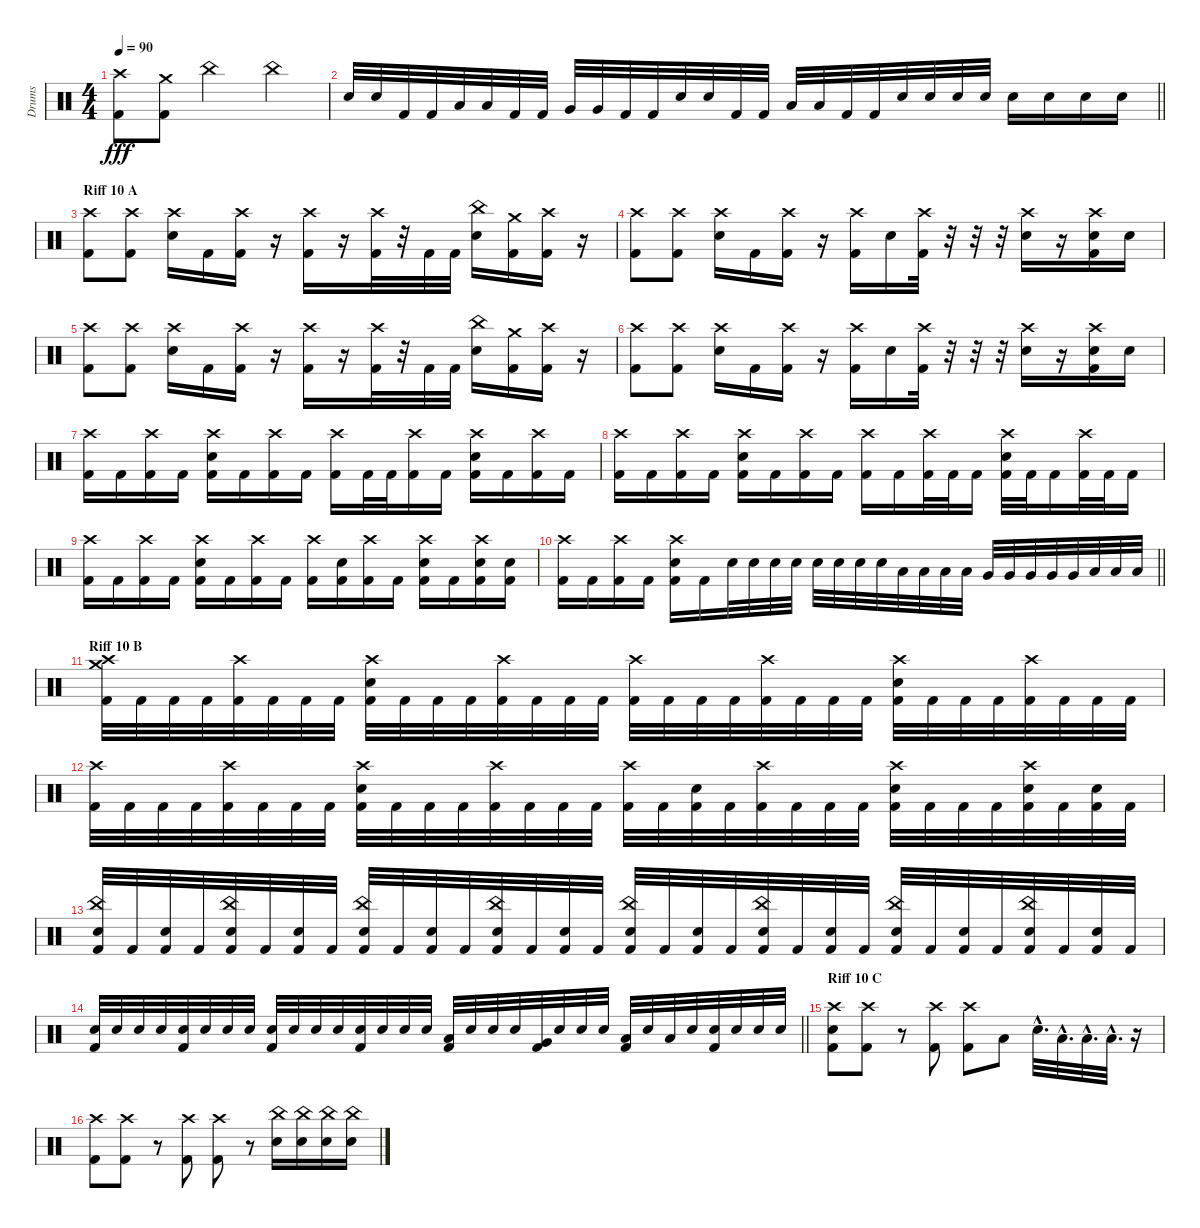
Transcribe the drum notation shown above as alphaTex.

\track ("Drums" "Drums") {instrument percussion}
\staff {score}
\articulation defaults
\ts (4 4)
\tempo 90
\clef neutral
\ks c
("Crash high (hit)" "Kick (hit) 2").8{dy fff} ("Crash medium (hit)" "Kick (hit) 2").8 "China (hit)".2 "China (hit)".4 |
\barLineRight lightlight "Electric Snare (hit)".32 "Electric Snare (hit)".32 "Kick (hit) 2".32 "Kick (hit) 2".32 "Low Tom (hit)".32 "Low Tom (hit)".32 "Kick (hit) 2".32 "Kick (hit) 2".32 "Very Low Tom (hit)".32 "Very Low Tom (hit)".32 "Kick (hit) 2".32 "Kick (hit) 2".32 "Electric Snare (hit)".32 "Electric Snare (hit)".32 "Kick (hit) 2".32 "Kick (hit) 2".32 "Low Tom (hit)".32 "Low Tom (hit)".32 "Kick (hit) 2".32 "Kick (hit) 2".32 "Electric Snare (hit)".32 "Electric Snare (hit)".32 "Electric Snare (hit)".32 "Electric Snare (hit)".32 "Electric Snare (hit)".16 "Electric Snare (hit)".16 "Electric Snare (hit)".16 "Electric Snare (hit)".16
|
\section ("" "Riff 10 A")
("Crash high (hit)" "Kick (hit) 2").8 ("Crash high (hit)" "Kick (hit) 2").8 ("Crash high (hit)" "Electric Snare (hit)").16 "Kick (hit) 2".16 ("Crash high (hit)" "Kick (hit) 2").16 r.16 ("Crash high (hit)" "Kick (hit) 2").16 r.16 ("Crash high (hit)" "Kick (hit) 2").32 r.32 "Kick (hit) 2".32 "Kick (hit) 2".32 ("China (hit)" "Electric Snare (hit)").16 ("Crash medium (hit)" "Kick (hit) 2").16 ("Crash high (hit)" "Kick (hit) 2").16 r.16 |
("Crash high (hit)" "Kick (hit) 2").8 ("Crash high (hit)" "Kick (hit) 2").8 ("Crash high (hit)" "Electric Snare (hit)").16 "Kick (hit) 2".16 ("Crash high (hit)" "Kick (hit) 2").16 r.16 ("Crash high (hit)" "Kick (hit) 2").16 "Electric Snare (hit)".16 ("Crash high (hit)" "Kick (hit) 2").32 r.32 r.32 r.32 ("Crash high (hit)" "Electric Snare (hit)").16 r.16 ("Crash high (hit)" "Electric Snare (hit)" "Kick (hit) 2").16 "Electric Snare (hit)".16 |
("Crash high (hit)" "Kick (hit) 2").8 ("Crash high (hit)" "Kick (hit) 2").8 ("Crash high (hit)" "Electric Snare (hit)").16 "Kick (hit) 2".16 ("Crash high (hit)" "Kick (hit) 2").16 r.16 ("Crash high (hit)" "Kick (hit) 2").16 r.16 ("Crash high (hit)" "Kick (hit) 2").32 r.32 "Kick (hit) 2".32 "Kick (hit) 2".32 ("China (hit)" "Electric Snare (hit)").16 ("Crash medium (hit)" "Kick (hit) 2").16 ("Crash high (hit)" "Kick (hit) 2").16 r.16 |
("Crash high (hit)" "Kick (hit) 2").8 ("Crash high (hit)" "Kick (hit) 2").8 ("Crash high (hit)" "Electric Snare (hit)").16 "Kick (hit) 2".16 ("Crash high (hit)" "Kick (hit) 2").16 r.16 ("Crash high (hit)" "Kick (hit) 2").16 "Electric Snare (hit)".16 ("Crash high (hit)" "Kick (hit) 2").32 r.32 r.32 r.32 ("Crash high (hit)" "Electric Snare (hit)").16 r.16 ("Crash high (hit)" "Electric Snare (hit)" "Kick (hit) 2").16 "Electric Snare (hit)".16 |
("Crash high (hit)" "Kick (hit) 2").16 "Kick (hit) 2".16 ("Crash high (hit)" "Kick (hit) 2").16 "Kick (hit) 2".16 ("Crash high (hit)" "Electric Snare (hit)" "Kick (hit) 2").16 "Kick (hit) 2".16 ("Crash high (hit)" "Kick (hit) 2").16 "Kick (hit) 2".16 ("Crash high (hit)" "Kick (hit) 2").16 "Kick (hit) 2".32 "Kick (hit) 2".32 ("Crash high (hit)" "Kick (hit) 2").16 "Kick (hit) 2".16 ("Crash high (hit)" "Electric Snare (hit)" "Kick (hit) 2").16 "Kick (hit) 2".16 ("Crash high (hit)" "Kick (hit) 2").16 "Kick (hit) 2".16 |
("Crash high (hit)" "Kick (hit) 2").16 "Kick (hit) 2".16 ("Crash high (hit)" "Kick (hit) 2").16 "Kick (hit) 2".16 ("Crash high (hit)" "Electric Snare (hit)" "Kick (hit) 2").16 "Kick (hit) 2".16 ("Crash high (hit)" "Kick (hit) 2").16 "Kick (hit) 2".16 ("Crash high (hit)" "Kick (hit) 2").16 "Kick (hit) 2".16 ("Crash high (hit)" "Kick (hit) 2").32 "Kick (hit) 2".32 "Kick (hit) 2".16 ("Crash high (hit)" "Electric Snare (hit)" "Kick (hit) 2").32 "Kick (hit) 2".32 "Kick (hit) 2".16 ("Crash high (hit)" "Kick (hit) 2").32 "Kick (hit) 2".32 "Kick (hit) 2".16 |
("Crash high (hit)" "Kick (hit) 2").16 "Kick (hit) 2".16 ("Crash high (hit)" "Kick (hit) 2").16 "Kick (hit) 2".16 ("Crash high (hit)" "Electric Snare (hit)" "Kick (hit) 2").16 "Kick (hit) 2".16 ("Crash high (hit)" "Kick (hit) 2").16 "Kick (hit) 2".16 ("Crash high (hit)" "Kick (hit) 2").16 ("Electric Snare (hit)" "Kick (hit) 2").16 ("Crash high (hit)" "Kick (hit) 2").16 "Kick (hit) 2".16 ("Crash high (hit)" "Electric Snare (hit)" "Kick (hit) 2").16 "Kick (hit) 2".16 ("Crash high (hit)" "Electric Snare (hit)" "Kick (hit) 2").16 ("Electric Snare (hit)" "Kick (hit) 2").16 |
\barLineRight lightlight
("Crash high (hit)" "Kick (hit) 2").16 "Kick (hit) 2".16 ("Crash high (hit)" "Kick (hit) 2").16 "Kick (hit) 2".16 ("Crash high (hit)" "Electric Snare (hit)" "Kick (hit) 2").16 "Kick (hit) 2".16 "Electric Snare (hit)".32 "Electric Snare (hit)".32 "Electric Snare (hit)".32 "Electric Snare (hit)".32 "Electric Snare (hit)".32 "Electric Snare (hit)".32 "Electric Snare (hit)".32 "Electric Snare (hit)".32 "Low Tom (hit)".32 "Low Tom (hit)".32 "Low Tom (hit)".32 "Low Tom (hit)".32 "Very Low Tom (hit)".32 "Very Low Tom (hit)".32 "Very Low Tom (hit)".32 "Very Low Tom (hit)".32 "Very Low Tom (hit)".32 "Low Floor Tom (hit)".32 "Low Floor Tom (hit)".32 "Low Floor Tom (hit)".32 |
\section ("" "Riff 10 B")
("Crash high (hit)" "Crash medium (hit)" "Kick (hit) 2").32 "Kick (hit) 2".32 "Kick (hit) 2".32 "Kick (hit) 2".32 ("Crash high (hit)" "Kick (hit) 2").32 "Kick (hit) 2".32 "Kick (hit) 2".32 "Kick (hit) 2".32 ("Crash high (hit)" "Electric Snare (hit)" "Kick (hit) 2").32 "Kick (hit) 2".32 "Kick (hit) 2".32 "Kick (hit) 2".32 ("Crash high (hit)" "Kick (hit) 2").32 "Kick (hit) 2".32 "Kick (hit) 2".32 "Kick (hit) 2".32 ("Crash high (hit)" "Kick (hit) 2").32 "Kick (hit) 2".32 "Kick (hit) 2".32 "Kick (hit) 2".32 ("Crash high (hit)" "Kick (hit) 2").32 "Kick (hit) 2".32 "Kick (hit) 2".32 "Kick (hit) 2".32 ("Crash high (hit)" "Electric Snare (hit)" "Kick (hit) 2").32 "Kick (hit) 2".32 "Kick (hit) 2".32 "Kick (hit) 2".32 ("Crash high (hit)" "Kick (hit) 2").32 "Kick (hit) 2".32 "Kick (hit) 2".32 "Kick (hit) 2".32 |
("Crash high (hit)" "Kick (hit) 2").32 "Kick (hit) 2".32 "Kick (hit) 2".32 "Kick (hit) 2".32 ("Crash high (hit)" "Kick (hit) 2").32 "Kick (hit) 2".32 "Kick (hit) 2".32 "Kick (hit) 2".32 ("Crash high (hit)" "Electric Snare (hit)" "Kick (hit) 2").32 "Kick (hit) 2".32 "Kick (hit) 2".32 "Kick (hit) 2".32 ("Crash high (hit)" "Kick (hit) 2").32 "Kick (hit) 2".32 "Kick (hit) 2".32 "Kick (hit) 2".32 ("Crash high (hit)" "Kick (hit) 2").32 "Kick (hit) 2".32 ("Electric Snare (hit)" "Kick (hit) 2").32 "Kick (hit) 2".32 ("Crash high (hit)" "Kick (hit) 2").32 "Kick (hit) 2".32 "Kick (hit) 2".32 "Kick (hit) 2".32 ("Crash high (hit)" "Electric Snare (hit)" "Kick (hit) 2").32 "Kick (hit) 2".32 "Kick (hit) 2".32 "Kick (hit) 2".32 ("Crash high (hit)" "Electric Snare (hit)" "Kick (hit) 2").32 "Kick (hit) 2".32 ("Electric Snare (hit)" "Kick (hit) 2").32 "Kick (hit) 2".32 |
("China (hit)" "Electric Snare (hit)" "Kick (hit) 2").32 "Kick (hit) 2".32 ("Electric Snare (hit)" "Kick (hit) 2").32 "Kick (hit) 2".32 ("China (hit)" "Electric Snare (hit)" "Kick (hit) 2").32 "Kick (hit) 2".32 ("Electric Snare (hit)" "Kick (hit) 2").32 "Kick (hit) 2".32 ("China (hit)" "Electric Snare (hit)" "Kick (hit) 2").32 "Kick (hit) 2".32 ("Electric Snare (hit)" "Kick (hit) 2").32 "Kick (hit) 2".32 ("China (hit)" "Electric Snare (hit)" "Kick (hit) 2").32 "Kick (hit) 2".32 ("Electric Snare (hit)" "Kick (hit) 2").32 "Kick (hit) 2".32 ("China (hit)" "Electric Snare (hit)" "Kick (hit) 2").32 "Kick (hit) 2".32 ("Electric Snare (hit)" "Kick (hit) 2").32 "Kick (hit) 2".32 ("China (hit)" "Electric Snare (hit)" "Kick (hit) 2").32 "Kick (hit) 2".32 ("Electric Snare (hit)" "Kick (hit) 2").32 "Kick (hit) 2".32 ("China (hit)" "Electric Snare (hit)" "Kick (hit) 2").32 "Kick (hit) 2".32 ("Electric Snare (hit)" "Kick (hit) 2").32 "Kick (hit) 2".32 ("China (hit)" "Electric Snare (hit)" "Kick (hit) 2").32 "Kick (hit) 2".32 ("Electric Snare (hit)" "Kick (hit) 2").32 "Kick (hit) 2".32 |
\barLineRight lightlight
("Electric Snare (hit)" "Kick (hit) 2").32 "Electric Snare (hit)".32 "Electric Snare (hit)".32 "Electric Snare (hit)".32 ("Electric Snare (hit)" "Kick (hit) 2").32 "Electric Snare (hit)".32 "Electric Snare (hit)".32 "Electric Snare (hit)".32 ("Electric Snare (hit)" "Kick (hit) 2").32 "Electric Snare (hit)".32 "Electric Snare (hit)".32 "Electric Snare (hit)".32 ("Electric Snare (hit)" "Kick (hit) 2").32 "Electric Snare (hit)".32 "Electric Snare (hit)".32 "Electric Snare (hit)".32 ("Low Tom (hit)" "Kick (hit) 2").32 "Electric Snare (hit)".32 "Electric Snare (hit)".32 "Electric Snare (hit)".32 ("Very Low Tom (hit)" "Kick (hit) 2").32 "Electric Snare (hit)".32 "Electric Snare (hit)".32 "Electric Snare (hit)".32 ("Low Floor Tom (hit)" "Kick (hit) 2").32 "Electric Snare (hit)".32 "Low Floor Tom (hit)".32 "Electric Snare (hit)".32 ("Electric Snare (hit)" "Kick (hit) 2").32 "Electric Snare (hit)".32 "Electric Snare (hit)".32 "Electric Snare (hit)".32 |
\section ("" "Riff 10 C")
("Crash high (hit)" "Electric Snare (hit)" "Kick (hit) 2").8 ("Crash high (hit)" "Kick (hit) 2").8 r.8 ("Crash high (hit)" "Kick (hit) 2").8 ("Crash high (hit)" "Kick (hit) 2").8 "Low Tom (hit)".8 "Electric Snare (hit)"{hac}.32{d} "Low Tom (hit)"{hac}.32{d} "Low Tom (hit)"{hac}.32{d} "Low Tom (hit)"{hac}.32{d} r.16 |
("Crash high (hit)" "Kick (hit) 2").8 ("Crash high (hit)" "Kick (hit) 2").8 r.8 ("Crash high (hit)" "Kick (hit) 2").8 ("Crash high (hit)" "Kick (hit) 2").8 r.8 ("China (hit)" "Electric Snare (hit)").16 ("China (hit)" "Electric Snare (hit)").16 ("China (hit)" "Electric Snare (hit)").16 ("China (hit)" "Electric Snare (hit)").16
